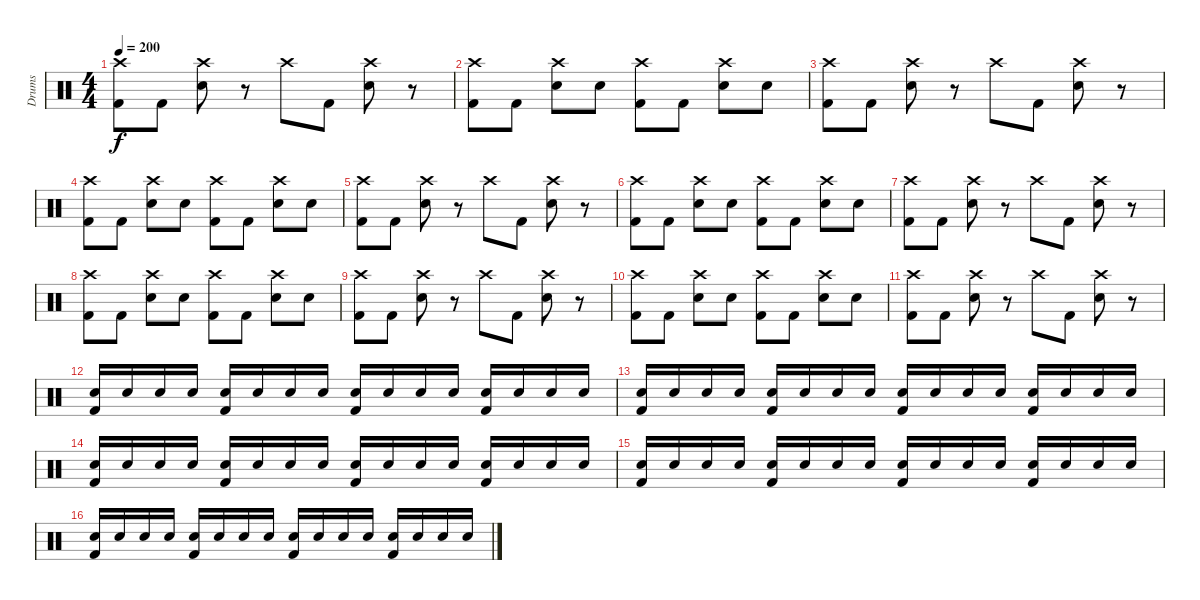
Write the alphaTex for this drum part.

\track ("Drums" "Drums") {instrument percussion}
\staff {score}
\articulation defaults
\ts (4 4)
\tempo 200
\clef neutral
\ks c
("Crash high (hit)" "Kick (hit) 2").8{dy f} "Kick (hit) 2".8 ("Crash high (hit)" "Electric Snare (hit)").8 r.8 "Crash high (hit)".8 "Kick (hit) 2".8 ("Crash high (hit)" "Electric Snare (hit)").8 r.8 |
("Crash high (hit)" "Kick (hit) 2").8 "Kick (hit) 2".8 ("Crash high (hit)" "Electric Snare (hit)").8 "Electric Snare (hit)".8 ("Crash high (hit)" "Kick (hit) 2").8 "Kick (hit) 2".8 ("Crash high (hit)" "Electric Snare (hit)").8 "Electric Snare (hit)".8 |
("Crash high (hit)" "Kick (hit) 2").8 "Kick (hit) 2".8 ("Crash high (hit)" "Electric Snare (hit)").8 r.8 "Crash high (hit)".8 "Kick (hit) 2".8 ("Crash high (hit)" "Electric Snare (hit)").8 r.8 |
("Crash high (hit)" "Kick (hit) 2").8 "Kick (hit) 2".8 ("Crash high (hit)" "Electric Snare (hit)").8 "Electric Snare (hit)".8 ("Crash high (hit)" "Kick (hit) 2").8 "Kick (hit) 2".8 ("Crash high (hit)" "Electric Snare (hit)").8 "Electric Snare (hit)".8 |
("Crash high (hit)" "Kick (hit) 2").8 "Kick (hit) 2".8 ("Crash high (hit)" "Electric Snare (hit)").8 r.8 "Crash high (hit)".8 "Kick (hit) 2".8 ("Crash high (hit)" "Electric Snare (hit)").8 r.8 |
("Crash high (hit)" "Kick (hit) 2").8 "Kick (hit) 2".8 ("Crash high (hit)" "Electric Snare (hit)").8 "Electric Snare (hit)".8 ("Crash high (hit)" "Kick (hit) 2").8 "Kick (hit) 2".8 ("Crash high (hit)" "Electric Snare (hit)").8 "Electric Snare (hit)".8 |
("Crash high (hit)" "Kick (hit) 2").8 "Kick (hit) 2".8 ("Crash high (hit)" "Electric Snare (hit)").8 r.8 "Crash high (hit)".8 "Kick (hit) 2".8 ("Crash high (hit)" "Electric Snare (hit)").8 r.8 |
("Crash high (hit)" "Kick (hit) 2").8 "Kick (hit) 2".8 ("Crash high (hit)" "Electric Snare (hit)").8 "Electric Snare (hit)".8 ("Crash high (hit)" "Kick (hit) 2").8 "Kick (hit) 2".8 ("Crash high (hit)" "Electric Snare (hit)").8 "Electric Snare (hit)".8 |
("Crash high (hit)" "Kick (hit) 2").8 "Kick (hit) 2".8 ("Crash high (hit)" "Electric Snare (hit)").8 r.8 "Crash high (hit)".8 "Kick (hit) 2".8 ("Crash high (hit)" "Electric Snare (hit)").8 r.8 |
("Crash high (hit)" "Kick (hit) 2").8 "Kick (hit) 2".8 ("Crash high (hit)" "Electric Snare (hit)").8 "Electric Snare (hit)".8 ("Crash high (hit)" "Kick (hit) 2").8 "Kick (hit) 2".8 ("Crash high (hit)" "Electric Snare (hit)").8 "Electric Snare (hit)".8 |
("Crash high (hit)" "Kick (hit) 2").8 "Kick (hit) 2".8 ("Crash high (hit)" "Electric Snare (hit)").8 r.8 "Crash high (hit)".8 "Kick (hit) 2".8 ("Crash high (hit)" "Electric Snare (hit)").8 r.8 |
("Electric Snare (hit)" "Kick (hit) 2").16 "Electric Snare (hit)".16 "Electric Snare (hit)".16 "Electric Snare (hit)".16 ("Electric Snare (hit)" "Kick (hit) 2").16 "Electric Snare (hit)".16 "Electric Snare (hit)".16 "Electric Snare (hit)".16 ("Electric Snare (hit)" "Kick (hit) 2").16 "Electric Snare (hit)".16 "Electric Snare (hit)".16 "Electric Snare (hit)".16 ("Electric Snare (hit)" "Kick (hit) 2").16 "Electric Snare (hit)".16 "Electric Snare (hit)".16 "Electric Snare (hit)".16 |
("Electric Snare (hit)" "Kick (hit) 2").16 "Electric Snare (hit)".16 "Electric Snare (hit)".16 "Electric Snare (hit)".16 ("Electric Snare (hit)" "Kick (hit) 2").16 "Electric Snare (hit)".16 "Electric Snare (hit)".16 "Electric Snare (hit)".16 ("Electric Snare (hit)" "Kick (hit) 2").16 "Electric Snare (hit)".16 "Electric Snare (hit)".16 "Electric Snare (hit)".16 ("Electric Snare (hit)" "Kick (hit) 2").16 "Electric Snare (hit)".16 "Electric Snare (hit)".16 "Electric Snare (hit)".16 |
("Electric Snare (hit)" "Kick (hit) 2").16 "Electric Snare (hit)".16 "Electric Snare (hit)".16 "Electric Snare (hit)".16 ("Electric Snare (hit)" "Kick (hit) 2").16 "Electric Snare (hit)".16 "Electric Snare (hit)".16 "Electric Snare (hit)".16 ("Electric Snare (hit)" "Kick (hit) 2").16 "Electric Snare (hit)".16 "Electric Snare (hit)".16 "Electric Snare (hit)".16 ("Electric Snare (hit)" "Kick (hit) 2").16 "Electric Snare (hit)".16 "Electric Snare (hit)".16 "Electric Snare (hit)".16 |
("Electric Snare (hit)" "Kick (hit) 2").16 "Electric Snare (hit)".16 "Electric Snare (hit)".16 "Electric Snare (hit)".16 ("Electric Snare (hit)" "Kick (hit) 2").16 "Electric Snare (hit)".16 "Electric Snare (hit)".16 "Electric Snare (hit)".16 ("Electric Snare (hit)" "Kick (hit) 2").16 "Electric Snare (hit)".16 "Electric Snare (hit)".16 "Electric Snare (hit)".16 ("Electric Snare (hit)" "Kick (hit) 2").16 "Electric Snare (hit)".16 "Electric Snare (hit)".16 "Electric Snare (hit)".16 |
("Electric Snare (hit)" "Kick (hit) 2").16 "Electric Snare (hit)".16 "Electric Snare (hit)".16 "Electric Snare (hit)".16 ("Electric Snare (hit)" "Kick (hit) 2").16 "Electric Snare (hit)".16 "Electric Snare (hit)".16 "Electric Snare (hit)".16 ("Electric Snare (hit)" "Kick (hit) 2").16 "Electric Snare (hit)".16 "Electric Snare (hit)".16 "Electric Snare (hit)".16 ("Electric Snare (hit)" "Kick (hit) 2").16 "Electric Snare (hit)".16 "Electric Snare (hit)".16 "Electric Snare (hit)".16
